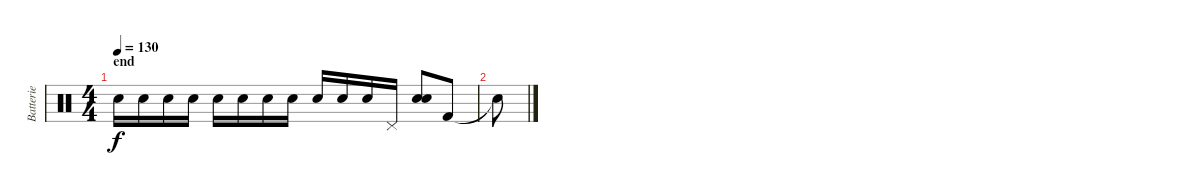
\track ("Batterie" "Batterie") {instrument percussion}
\staff {score}
\articulation defaults
\ts (4 4)
\section ("" "end")
\tempo 130
\clef neutral
\ks c "Snare (hit) 2".16{dy f} "Snare (hit) 2".16 "Snare (hit) 2".16 "Snare (hit) 2".16 "Snare (hit) 2".16 "Snare (hit) 2".16 "Snare (hit) 2".16 "Snare (hit) 2".16 "Snare (hit) 2".16 "Snare (hit) 2".16 "Snare (hit) 2".16 "Pedal Hi-Hat (hit)".16
("Electric Snare (hit)" "Snare (hit) 2").8 "Kick (hit) 2".8 |
"Snare (hit)"{t}.8
